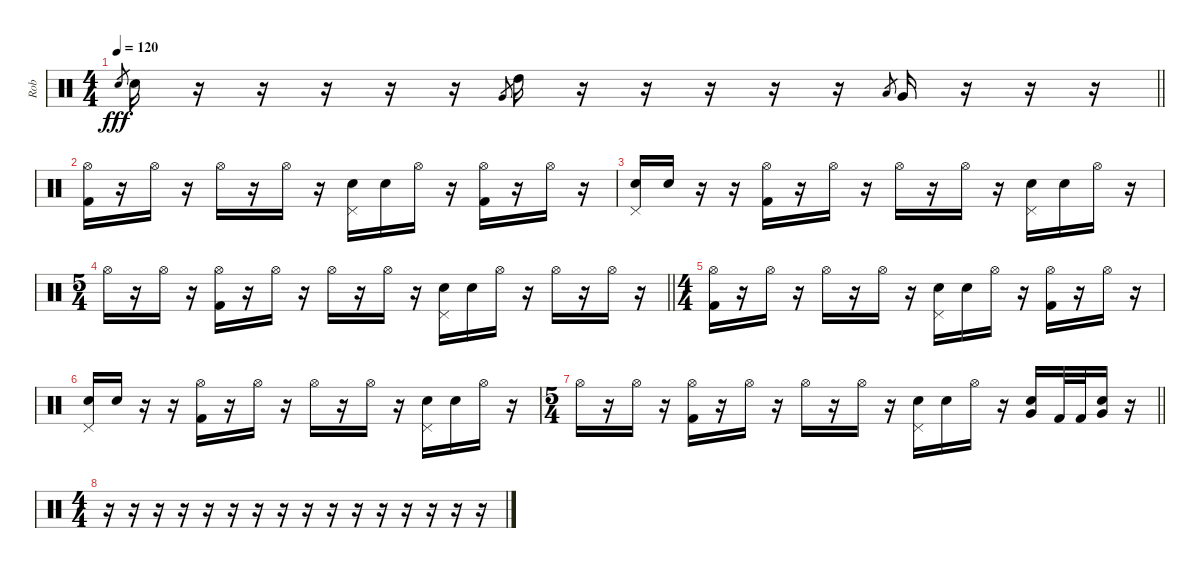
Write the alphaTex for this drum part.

\track ("Rob" "Rob") {instrument percussion}
\staff {score}
\articulation defaults
\ts (4 4)
\tempo 120
\clef neutral
\barLineRight lightlight
\ks c "Electric Snare (hit)".8{gr dy fff} "Electric Snare (hit)".16
r.16 r.16 r.16 r.16 r.16 "Very Low Tom (hit)".8{gr} "High Tom (hit)".16 r.16 r.16 r.16 r.16 r.16 "Low Floor Tom (hit)".8{gr} "Very Low Tom (hit)".16 r.16 r.16 r.16 |
("Hi-Hat (open)" "Kick (hit) 2").16 r.16 "Hi-Hat (open)".16 r.16 "Hi-Hat (open)".16 r.16 "Hi-Hat (open)".16 r.16 ("Pedal Hi-Hat (hit)" "Electric Snare (hit)").16 "Electric Snare (hit)".16 "Hi-Hat (open)".16 r.16 ("Hi-Hat (open)" "Kick (hit) 2").16 r.16 "Hi-Hat (open)".16 r.16 |
("Pedal Hi-Hat (hit)" "Electric Snare (hit)").16 "Electric Snare (hit)".16 r.16 r.16 ("Hi-Hat (open)" "Kick (hit) 2").16 r.16 "Hi-Hat (open)".16 r.16 "Hi-Hat (open)".16 r.16 "Hi-Hat (open)".16 r.16 ("Pedal Hi-Hat (hit)" "Electric Snare (hit)").16 "Electric Snare (hit)".16 "Hi-Hat (open)".16 r.16 |
\ts (5 4)
\barLineRight lightlight "Hi-Hat (open)".16
r.16 "Hi-Hat (open)".16 r.16 ("Hi-Hat (open)" "Kick (hit) 2").16 r.16 "Hi-Hat (open)".16 r.16 "Hi-Hat (open)".16 r.16 "Hi-Hat (open)".16 r.16 ("Pedal Hi-Hat (hit)" "Electric Snare (hit)").16 "Electric Snare (hit)".16 "Hi-Hat (open)".16 r.16 "Hi-Hat (open)".16 r.16 "Hi-Hat (open)".16 r.16 |
\ts (4 4)
("Hi-Hat (open)" "Kick (hit) 2").16 r.16 "Hi-Hat (open)".16 r.16 "Hi-Hat (open)".16 r.16 "Hi-Hat (open)".16 r.16 ("Pedal Hi-Hat (hit)" "Electric Snare (hit)").16 "Electric Snare (hit)".16 "Hi-Hat (open)".16 r.16 ("Hi-Hat (open)" "Kick (hit) 2").16 r.16 "Hi-Hat (open)".16 r.16 |
("Pedal Hi-Hat (hit)" "Electric Snare (hit)").16 "Electric Snare (hit)".16 r.16 r.16 ("Hi-Hat (open)" "Kick (hit) 2").16 r.16 "Hi-Hat (open)".16 r.16 "Hi-Hat (open)".16 r.16 "Hi-Hat (open)".16 r.16 ("Pedal Hi-Hat (hit)" "Electric Snare (hit)").16 "Electric Snare (hit)".16 "Hi-Hat (open)".16 r.16 |
\ts (5 4)
\barLineRight lightlight "Hi-Hat (open)".16
r.16 "Hi-Hat (open)".16 r.16 ("Hi-Hat (open)" "Kick (hit) 2").16 r.16 "Hi-Hat (open)".16 r.16 "Hi-Hat (open)".16 r.16 "Hi-Hat (open)".16 r.16 ("Pedal Hi-Hat (hit)" "Electric Snare (hit)").16 "Electric Snare (hit)".16 "Hi-Hat (open)".16 r.16 ("Electric Snare (hit)" "Very Low Tom (hit)").16 "Kick (hit) 2".32 "Kick (hit) 2".32 ("Electric Snare (hit)" "Very Low Tom (hit)").16 r.16 |
\ts (4 4)
r.16 r.16 r.16 r.16 r.16 r.16 r.16 r.16 r.16 r.16 r.16 r.16 r.16 r.16 r.16 r.16
